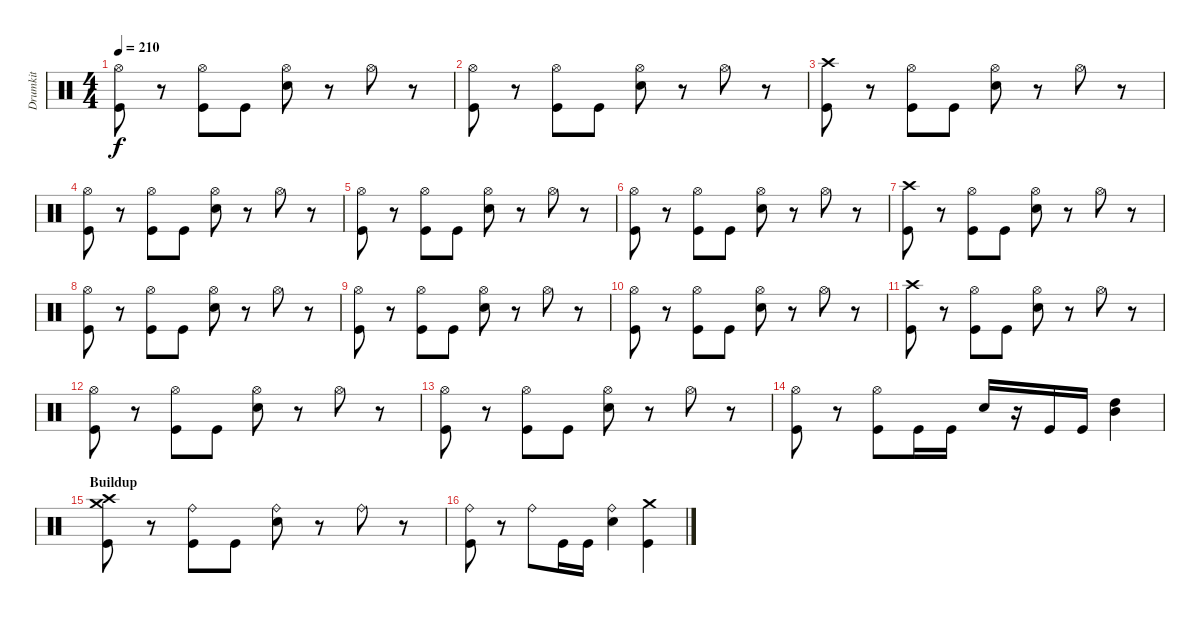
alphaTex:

\track ("Drumkit" "Drumkit") {instrument percussion}
\staff {score}
\articulation defaults
\ts (4 4)
\tempo 210
\clef neutral
\ks c
("Hi-Hat (open)" "Kick (hit)").8{dy f} r.8 ("Hi-Hat (open)" "Kick (hit)").8 "Kick (hit)".8 ("Hi-Hat (open)" "Snare (hit) 2").8 r.8 "Hi-Hat (open)".8 r.8 |
("Hi-Hat (open)" "Kick (hit)").8 r.8 ("Hi-Hat (open)" "Kick (hit)").8 "Kick (hit)".8 ("Hi-Hat (open)" "Snare (hit) 2").8 r.8 "Hi-Hat (open)".8 r.8 |
("Crash high (hit)" "Kick (hit)").8 r.8 ("Hi-Hat (open)" "Kick (hit)").8 "Kick (hit)".8 ("Hi-Hat (open)" "Snare (hit) 2").8 r.8 "Hi-Hat (open)".8 r.8 |
("Hi-Hat (open)" "Kick (hit)").8 r.8 ("Hi-Hat (open)" "Kick (hit)").8 "Kick (hit)".8 ("Hi-Hat (open)" "Snare (hit) 2").8 r.8 "Hi-Hat (open)".8 r.8 |
("Hi-Hat (open)" "Kick (hit)").8 r.8 ("Hi-Hat (open)" "Kick (hit)").8 "Kick (hit)".8 ("Hi-Hat (open)" "Snare (hit) 2").8 r.8 "Hi-Hat (open)".8 r.8 |
("Hi-Hat (open)" "Kick (hit)").8 r.8 ("Hi-Hat (open)" "Kick (hit)").8 "Kick (hit)".8 ("Hi-Hat (open)" "Snare (hit) 2").8 r.8 "Hi-Hat (open)".8 r.8 |
("Crash high (hit)" "Kick (hit)").8 r.8 ("Hi-Hat (open)" "Kick (hit)").8 "Kick (hit)".8 ("Hi-Hat (open)" "Snare (hit) 2").8 r.8 "Hi-Hat (open)".8 r.8 |
("Hi-Hat (open)" "Kick (hit)").8 r.8 ("Hi-Hat (open)" "Kick (hit)").8 "Kick (hit)".8 ("Hi-Hat (open)" "Snare (hit) 2").8 r.8 "Hi-Hat (open)".8 r.8 |
("Hi-Hat (open)" "Kick (hit)").8 r.8 ("Hi-Hat (open)" "Kick (hit)").8 "Kick (hit)".8 ("Hi-Hat (open)" "Snare (hit) 2").8 r.8 "Hi-Hat (open)".8 r.8 |
("Hi-Hat (open)" "Kick (hit)").8 r.8 ("Hi-Hat (open)" "Kick (hit)").8 "Kick (hit)".8 ("Hi-Hat (open)" "Snare (hit) 2").8 r.8 "Hi-Hat (open)".8 r.8 |
("Crash high (hit)" "Kick (hit)").8 r.8 ("Hi-Hat (open)" "Kick (hit)").8 "Kick (hit)".8 ("Hi-Hat (open)" "Snare (hit) 2").8 r.8 "Hi-Hat (open)".8 r.8 |
("Hi-Hat (open)" "Kick (hit)").8 r.8 ("Hi-Hat (open)" "Kick (hit)").8 "Kick (hit)".8 ("Hi-Hat (open)" "Snare (hit) 2").8 r.8 "Hi-Hat (open)".8 r.8 |
("Hi-Hat (open)" "Kick (hit)").8 r.8 ("Hi-Hat (open)" "Kick (hit)").8 "Kick (hit)".8 ("Hi-Hat (open)" "Snare (hit) 2").8 r.8 "Hi-Hat (open)".8 r.8 |
("Hi-Hat (open)" "Kick (hit)").8 r.8 ("Hi-Hat (open)" "Kick (hit)").8 "Kick (hit)".16 "Kick (hit)".16 "Snare (hit) 2".16 r.16 "Kick (hit)".16 "Kick (hit)".16 ("Mid Tom (hit)" "High Tom (hit)").4 |
\section ("" "Buildup")
("Crash high (hit)" "Crash medium (hit)" "Kick (hit)").8 r.8 ("Ride (bell)" "Kick (hit)").8 "Kick (hit)".8 ("Ride (bell)" "Snare (hit) 2").8 r.8 "Ride (bell)".8 r.8 |
("Ride (bell)" "Kick (hit)").8 r.8 "Ride (bell)".8 "Kick (hit)".16 "Kick (hit)".16 ("Ride (bell)" "Snare (hit) 2").4 ("Crash medium (hit)" "Kick (hit)").4
